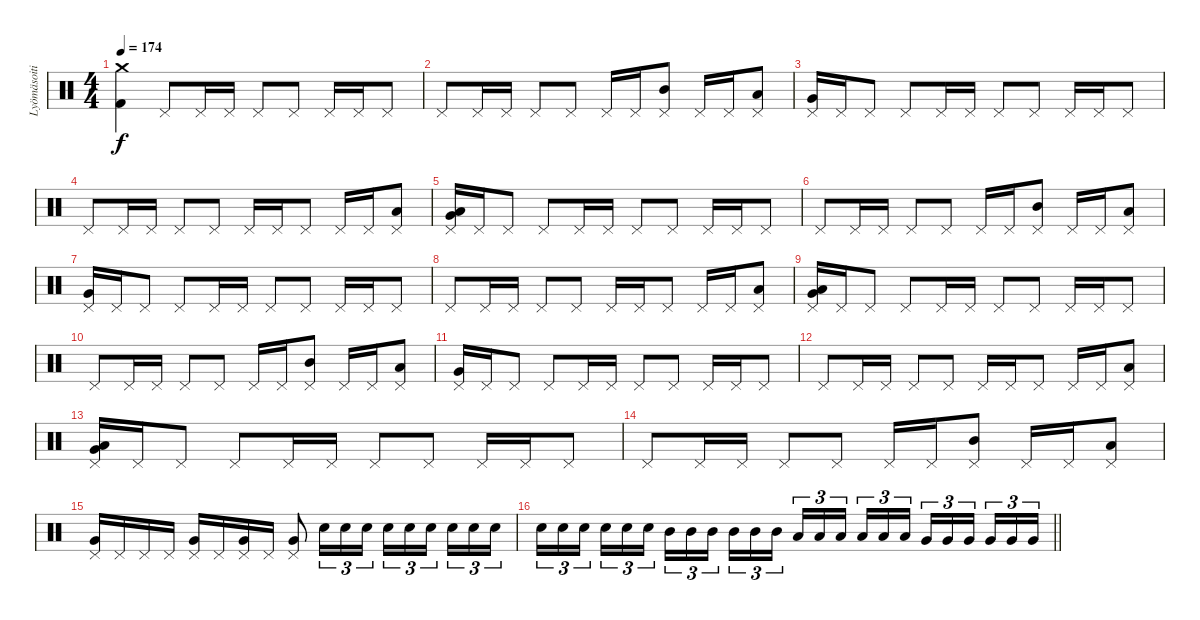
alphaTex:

\track ("Lyömäsoitin" "Lyömäsoiti") {instrument percussion}
\staff {score}
\articulation defaults
\ts (4 4)
\section ("" "")
\tempo 174
\clef neutral
\ks c
("Crash medium (hit)" "Kick (hit) 2").4{dy f} "Pedal Hi-Hat (hit)".8 "Pedal Hi-Hat (hit)".16 "Pedal Hi-Hat (hit)".16 "Pedal Hi-Hat (hit)".8 "Pedal Hi-Hat (hit)".8 "Pedal Hi-Hat (hit)".16 "Pedal Hi-Hat (hit)".16 "Pedal Hi-Hat (hit)".8 |
"Pedal Hi-Hat (hit)".8 "Pedal Hi-Hat (hit)".16 "Pedal Hi-Hat (hit)".16 "Pedal Hi-Hat (hit)".8 "Pedal Hi-Hat (hit)".8 "Pedal Hi-Hat (hit)".16 "Pedal Hi-Hat (hit)".16 ("Pedal Hi-Hat (hit)" "Mid Tom (hit)").8 "Pedal Hi-Hat (hit)".16 "Pedal Hi-Hat (hit)".16 ("Pedal Hi-Hat (hit)" "Low Tom (hit)").8 |
("Pedal Hi-Hat (hit)" "Very Low Tom (hit)").16 "Pedal Hi-Hat (hit)".16 "Pedal Hi-Hat (hit)".8 "Pedal Hi-Hat (hit)".8 "Pedal Hi-Hat (hit)".16 "Pedal Hi-Hat (hit)".16 "Pedal Hi-Hat (hit)".8 "Pedal Hi-Hat (hit)".8 "Pedal Hi-Hat (hit)".16 "Pedal Hi-Hat (hit)".16 "Pedal Hi-Hat (hit)".8 |
"Pedal Hi-Hat (hit)".8 "Pedal Hi-Hat (hit)".16 "Pedal Hi-Hat (hit)".16 "Pedal Hi-Hat (hit)".8 "Pedal Hi-Hat (hit)".8 "Pedal Hi-Hat (hit)".16 "Pedal Hi-Hat (hit)".16 "Pedal Hi-Hat (hit)".8 "Pedal Hi-Hat (hit)".16 "Pedal Hi-Hat (hit)".16 ("Pedal Hi-Hat (hit)" "Low Tom (hit)").8 |
("Pedal Hi-Hat (hit)" "Low Tom (hit)" "Very Low Tom (hit)").16 "Pedal Hi-Hat (hit)".16 "Pedal Hi-Hat (hit)".8 "Pedal Hi-Hat (hit)".8 "Pedal Hi-Hat (hit)".16 "Pedal Hi-Hat (hit)".16 "Pedal Hi-Hat (hit)".8 "Pedal Hi-Hat (hit)".8 "Pedal Hi-Hat (hit)".16 "Pedal Hi-Hat (hit)".16 "Pedal Hi-Hat (hit)".8 |
"Pedal Hi-Hat (hit)".8 "Pedal Hi-Hat (hit)".16 "Pedal Hi-Hat (hit)".16 "Pedal Hi-Hat (hit)".8 "Pedal Hi-Hat (hit)".8 "Pedal Hi-Hat (hit)".16 "Pedal Hi-Hat (hit)".16 ("Pedal Hi-Hat (hit)" "Mid Tom (hit)").8 "Pedal Hi-Hat (hit)".16 "Pedal Hi-Hat (hit)".16 ("Pedal Hi-Hat (hit)" "Low Tom (hit)").8 |
("Pedal Hi-Hat (hit)" "Very Low Tom (hit)").16 "Pedal Hi-Hat (hit)".16 "Pedal Hi-Hat (hit)".8 "Pedal Hi-Hat (hit)".8 "Pedal Hi-Hat (hit)".16 "Pedal Hi-Hat (hit)".16 "Pedal Hi-Hat (hit)".8 "Pedal Hi-Hat (hit)".8 "Pedal Hi-Hat (hit)".16 "Pedal Hi-Hat (hit)".16 "Pedal Hi-Hat (hit)".8 |
"Pedal Hi-Hat (hit)".8 "Pedal Hi-Hat (hit)".16 "Pedal Hi-Hat (hit)".16 "Pedal Hi-Hat (hit)".8 "Pedal Hi-Hat (hit)".8 "Pedal Hi-Hat (hit)".16 "Pedal Hi-Hat (hit)".16 "Pedal Hi-Hat (hit)".8 "Pedal Hi-Hat (hit)".16 "Pedal Hi-Hat (hit)".16 ("Pedal Hi-Hat (hit)" "Low Tom (hit)").8 |
("Pedal Hi-Hat (hit)" "Low Tom (hit)" "Very Low Tom (hit)").16 "Pedal Hi-Hat (hit)".16 "Pedal Hi-Hat (hit)".8 "Pedal Hi-Hat (hit)".8 "Pedal Hi-Hat (hit)".16 "Pedal Hi-Hat (hit)".16 "Pedal Hi-Hat (hit)".8 "Pedal Hi-Hat (hit)".8 "Pedal Hi-Hat (hit)".16 "Pedal Hi-Hat (hit)".16 "Pedal Hi-Hat (hit)".8 |
"Pedal Hi-Hat (hit)".8 "Pedal Hi-Hat (hit)".16 "Pedal Hi-Hat (hit)".16 "Pedal Hi-Hat (hit)".8 "Pedal Hi-Hat (hit)".8 "Pedal Hi-Hat (hit)".16 "Pedal Hi-Hat (hit)".16 ("Pedal Hi-Hat (hit)" "Mid Tom (hit)").8 "Pedal Hi-Hat (hit)".16 "Pedal Hi-Hat (hit)".16 ("Pedal Hi-Hat (hit)" "Low Tom (hit)").8 |
("Pedal Hi-Hat (hit)" "Very Low Tom (hit)").16 "Pedal Hi-Hat (hit)".16 "Pedal Hi-Hat (hit)".8 "Pedal Hi-Hat (hit)".8 "Pedal Hi-Hat (hit)".16 "Pedal Hi-Hat (hit)".16 "Pedal Hi-Hat (hit)".8 "Pedal Hi-Hat (hit)".8 "Pedal Hi-Hat (hit)".16 "Pedal Hi-Hat (hit)".16 "Pedal Hi-Hat (hit)".8 |
"Pedal Hi-Hat (hit)".8 "Pedal Hi-Hat (hit)".16 "Pedal Hi-Hat (hit)".16 "Pedal Hi-Hat (hit)".8 "Pedal Hi-Hat (hit)".8 "Pedal Hi-Hat (hit)".16 "Pedal Hi-Hat (hit)".16 "Pedal Hi-Hat (hit)".8 "Pedal Hi-Hat (hit)".16 "Pedal Hi-Hat (hit)".16 ("Pedal Hi-Hat (hit)" "Low Tom (hit)").8 |
("Pedal Hi-Hat (hit)" "Low Tom (hit)" "Very Low Tom (hit)").16 "Pedal Hi-Hat (hit)".16 "Pedal Hi-Hat (hit)".8 "Pedal Hi-Hat (hit)".8 "Pedal Hi-Hat (hit)".16 "Pedal Hi-Hat (hit)".16 "Pedal Hi-Hat (hit)".8 "Pedal Hi-Hat (hit)".8 "Pedal Hi-Hat (hit)".16 "Pedal Hi-Hat (hit)".16 "Pedal Hi-Hat (hit)".8 |
"Pedal Hi-Hat (hit)".8 "Pedal Hi-Hat (hit)".16 "Pedal Hi-Hat (hit)".16 "Pedal Hi-Hat (hit)".8 "Pedal Hi-Hat (hit)".8 "Pedal Hi-Hat (hit)".16 "Pedal Hi-Hat (hit)".16 ("Pedal Hi-Hat (hit)" "Mid Tom (hit)").8 "Pedal Hi-Hat (hit)".16 "Pedal Hi-Hat (hit)".16 ("Pedal Hi-Hat (hit)" "Low Tom (hit)").8 |
("Pedal Hi-Hat (hit)" "Very Low Tom (hit)").16 "Pedal Hi-Hat (hit)".16 "Pedal Hi-Hat (hit)".16 "Pedal Hi-Hat (hit)".16 ("Pedal Hi-Hat (hit)" "Very Low Tom (hit)").16 "Pedal Hi-Hat (hit)".16 ("Pedal Hi-Hat (hit)" "Very Low Tom (hit)").16 "Pedal Hi-Hat (hit)".16 ("Pedal Hi-Hat (hit)" "Very Low Tom (hit)").8 "Electric Snare (hit)".16{tu (3 2)} "Electric Snare (hit)".16{tu (3 2)} "Electric Snare (hit)".16{tu (3 2)} "Electric Snare (hit)".16{tu (3 2)} "Electric Snare (hit)".16{tu (3 2)} "Electric Snare (hit)".16{tu (3 2) beam splitsecondary} "Electric Snare (hit)".16{tu (3 2)} "Electric Snare (hit)".16{tu (3 2)} "Electric Snare (hit)".16{tu (3 2)} |
\barLineRight lightlight "Electric Snare (hit)".16{tu (3 2)} "Electric Snare (hit)".16{tu (3 2)} "Electric Snare (hit)".16{tu (3 2) beam splitsecondary} "Electric Snare (hit)".16{tu (3 2)} "Electric Snare (hit)".16{tu (3 2)} "Electric Snare (hit)".16{tu (3 2)} "Mid Tom (hit)".16{tu (3 2)} "Mid Tom (hit)".16{tu (3 2)} "Mid Tom (hit)".16{tu (3 2) beam splitsecondary} "Mid Tom (hit)".16{tu (3 2)} "Mid Tom (hit)".16{tu (3 2)} "Mid Tom (hit)".16{tu (3 2)} "Low Tom (hit)".16{tu (3 2)} "Low Tom (hit)".16{tu (3 2)} "Low Tom (hit)".16{tu (3 2) beam splitsecondary} "Low Tom (hit)".16{tu (3 2)} "Low Tom (hit)".16{tu (3 2)} "Low Tom (hit)".16{tu (3 2)} "Very Low Tom (hit)".16{tu (3 2)} "Very Low Tom (hit)".16{tu (3 2)} "Very Low Tom (hit)".16{tu (3 2) beam splitsecondary} "Very Low Tom (hit)".16{tu (3 2)} "Very Low Tom (hit)".16{tu (3 2)} "Very Low Tom (hit)".16{tu (3 2)}
